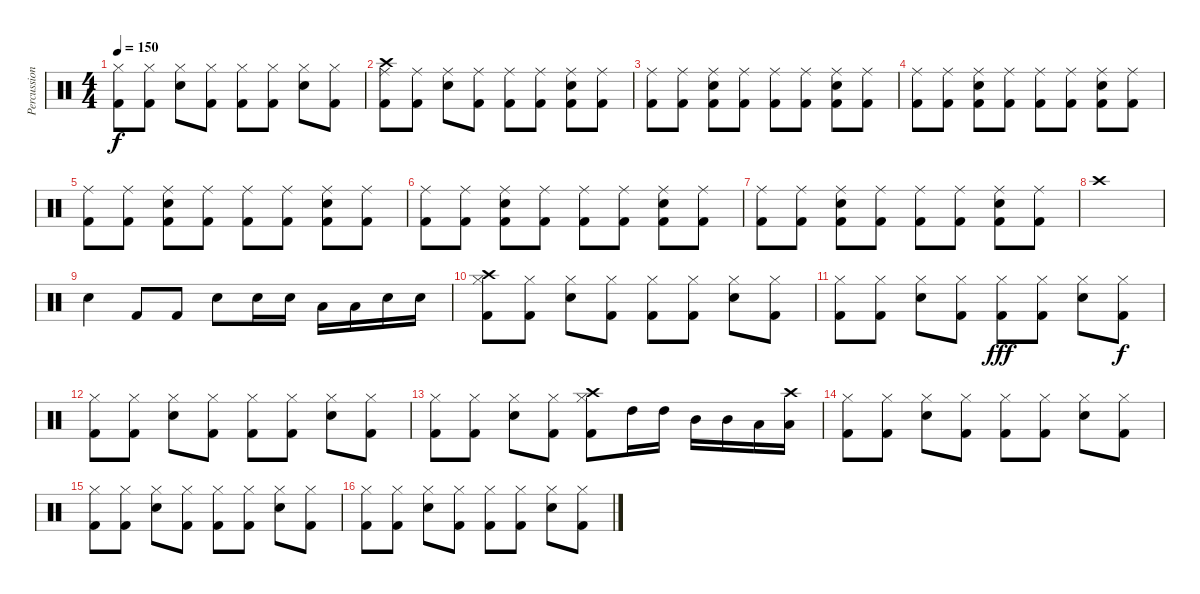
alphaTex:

\track ("Percussion" "Percussion") {instrument percussion}
\staff {score}
\articulation defaults
\ts (4 4)
\tempo 150
\clef neutral
\ks c
("Hi-Hat (closed)" "Kick (hit) 2").8{dy f} ("Hi-Hat (closed)" "Kick (hit) 2").8 ("Hi-Hat (closed)" "Snare (hit) 2").8 ("Hi-Hat (closed)" "Kick (hit) 2").8 ("Hi-Hat (closed)" "Kick (hit) 2").8 ("Hi-Hat (closed)" "Kick (hit) 2").8 ("Hi-Hat (closed)" "Snare (hit) 2").8 ("Hi-Hat (closed)" "Kick (hit) 2").8 |
("Crash high (hit)" "Ride (middle)" "Kick (hit) 2").8 ("Ride (middle)" "Kick (hit) 2").8 ("Ride (middle)" "Snare (hit) 2").8 ("Ride (middle)" "Kick (hit) 2").8 ("Ride (middle)" "Kick (hit) 2").8 ("Ride (middle)" "Kick (hit) 2").8 ("Ride (middle)" "Snare (hit) 2" "Kick (hit) 2").8 ("Ride (middle)" "Kick (hit) 2").8 |
("Ride (middle)" "Kick (hit) 2").8 ("Ride (middle)" "Kick (hit) 2").8 ("Ride (middle)" "Snare (hit) 2" "Kick (hit) 2").8 ("Ride (middle)" "Kick (hit) 2").8 ("Ride (middle)" "Kick (hit) 2").8 ("Ride (middle)" "Kick (hit) 2").8 ("Ride (middle)" "Snare (hit) 2" "Kick (hit) 2").8 ("Ride (middle)" "Kick (hit) 2").8 |
("Ride (middle)" "Kick (hit) 2").8 ("Ride (middle)" "Kick (hit) 2").8 ("Ride (middle)" "Snare (hit) 2" "Kick (hit) 2").8 ("Ride (middle)" "Kick (hit) 2").8 ("Ride (middle)" "Kick (hit) 2").8 ("Ride (middle)" "Kick (hit) 2").8 ("Ride (middle)" "Snare (hit) 2" "Kick (hit) 2").8 ("Ride (middle)" "Kick (hit) 2").8 |
("Ride (middle)" "Kick (hit) 2").8 ("Ride (middle)" "Kick (hit) 2").8 ("Ride (middle)" "Snare (hit) 2" "Kick (hit) 2").8 ("Ride (middle)" "Kick (hit) 2").8 ("Ride (middle)" "Kick (hit) 2").8 ("Ride (middle)" "Kick (hit) 2").8 ("Ride (middle)" "Snare (hit) 2" "Kick (hit) 2").8 ("Ride (middle)" "Kick (hit) 2").8 |
("Ride (middle)" "Kick (hit) 2").8 ("Ride (middle)" "Kick (hit) 2").8 ("Ride (middle)" "Snare (hit) 2" "Kick (hit) 2").8 ("Ride (middle)" "Kick (hit) 2").8 ("Ride (middle)" "Kick (hit) 2").8 ("Ride (middle)" "Kick (hit) 2").8 ("Ride (middle)" "Snare (hit) 2" "Kick (hit) 2").8 ("Ride (middle)" "Kick (hit) 2").8 |
("Ride (middle)" "Kick (hit) 2").8 ("Ride (middle)" "Kick (hit) 2").8 ("Ride (middle)" "Snare (hit) 2" "Kick (hit) 2").8 ("Ride (middle)" "Kick (hit) 2").8 ("Ride (middle)" "Kick (hit) 2").8 ("Ride (middle)" "Kick (hit) 2").8 ("Ride (middle)" "Snare (hit) 2" "Kick (hit) 2").8 ("Ride (middle)" "Kick (hit) 2").8 |
"Crash high (hit)".1 |
"Snare (hit) 2".4 "Kick (hit) 2".8 "Kick (hit) 2".8 "Snare (hit) 2".8 "Snare (hit) 2".16 "Snare (hit) 2".16 "Low Tom (hit)".16 "Low Tom (hit)".16 "Snare (hit) 2".16 "Snare (hit) 2".16 |
("Crash high (hit)" "Hi-Hat (closed)" "Kick (hit) 2").8 ("Hi-Hat (closed)" "Kick (hit) 2").8 ("Hi-Hat (closed)" "Snare (hit) 2").8 ("Hi-Hat (closed)" "Kick (hit) 2").8 ("Hi-Hat (closed)" "Kick (hit) 2").8 ("Hi-Hat (closed)" "Kick (hit) 2").8 ("Hi-Hat (closed)" "Snare (hit) 2").8 ("Hi-Hat (closed)" "Kick (hit) 2").8 |
("Hi-Hat (closed)" "Kick (hit) 2").8 ("Hi-Hat (closed)" "Kick (hit) 2").8 ("Hi-Hat (closed)" "Snare (hit) 2").8 ("Hi-Hat (closed)" "Kick (hit) 2").8 ("Hi-Hat (closed)" "Kick (hit) 2").8{dy fff} ("Hi-Hat (closed)" "Kick (hit) 2").8 ("Hi-Hat (closed)" "Snare (hit) 2").8 ("Hi-Hat (closed)" "Kick (hit) 2").8{dy f} |
("Hi-Hat (closed)" "Kick (hit) 2").8 ("Hi-Hat (closed)" "Kick (hit) 2").8 ("Hi-Hat (closed)" "Snare (hit) 2").8 ("Hi-Hat (closed)" "Kick (hit) 2").8 ("Hi-Hat (closed)" "Kick (hit) 2").8 ("Hi-Hat (closed)" "Kick (hit) 2").8 ("Hi-Hat (closed)" "Snare (hit) 2").8 ("Hi-Hat (closed)" "Kick (hit) 2").8 |
("Hi-Hat (closed)" "Kick (hit) 2").8 ("Hi-Hat (closed)" "Kick (hit) 2").8 ("Hi-Hat (closed)" "Snare (hit) 2").8 ("Hi-Hat (closed)" "Kick (hit) 2").8 ("Hi-Hat (closed)" "Crash high (hit)" "Kick (hit) 2").8 "High Tom (hit)".16 "High Tom (hit)".16 "Mid Tom (hit)".16 "Mid Tom (hit)".16 "Low Tom (hit)".16 ("Crash high (hit)" "Low Tom (hit)").16 |
("Hi-Hat (closed)" "Kick (hit) 2").8 ("Hi-Hat (closed)" "Kick (hit) 2").8 ("Hi-Hat (closed)" "Snare (hit) 2").8 ("Hi-Hat (closed)" "Kick (hit) 2").8 ("Hi-Hat (closed)" "Kick (hit) 2").8 ("Hi-Hat (closed)" "Kick (hit) 2").8 ("Hi-Hat (closed)" "Snare (hit) 2").8 ("Hi-Hat (closed)" "Kick (hit) 2").8 |
("Hi-Hat (closed)" "Kick (hit) 2").8 ("Hi-Hat (closed)" "Kick (hit) 2").8 ("Hi-Hat (closed)" "Snare (hit) 2").8 ("Hi-Hat (closed)" "Kick (hit) 2").8 ("Hi-Hat (closed)" "Kick (hit) 2").8 ("Hi-Hat (closed)" "Kick (hit) 2").8 ("Hi-Hat (closed)" "Snare (hit) 2").8 ("Hi-Hat (closed)" "Kick (hit) 2").8 |
("Hi-Hat (closed)" "Kick (hit) 2").8 ("Hi-Hat (closed)" "Kick (hit) 2").8 ("Hi-Hat (closed)" "Snare (hit) 2").8 ("Hi-Hat (closed)" "Kick (hit) 2").8 ("Hi-Hat (closed)" "Kick (hit) 2").8 ("Hi-Hat (closed)" "Kick (hit) 2").8 ("Hi-Hat (closed)" "Snare (hit) 2").8 ("Hi-Hat (closed)" "Kick (hit) 2").8
